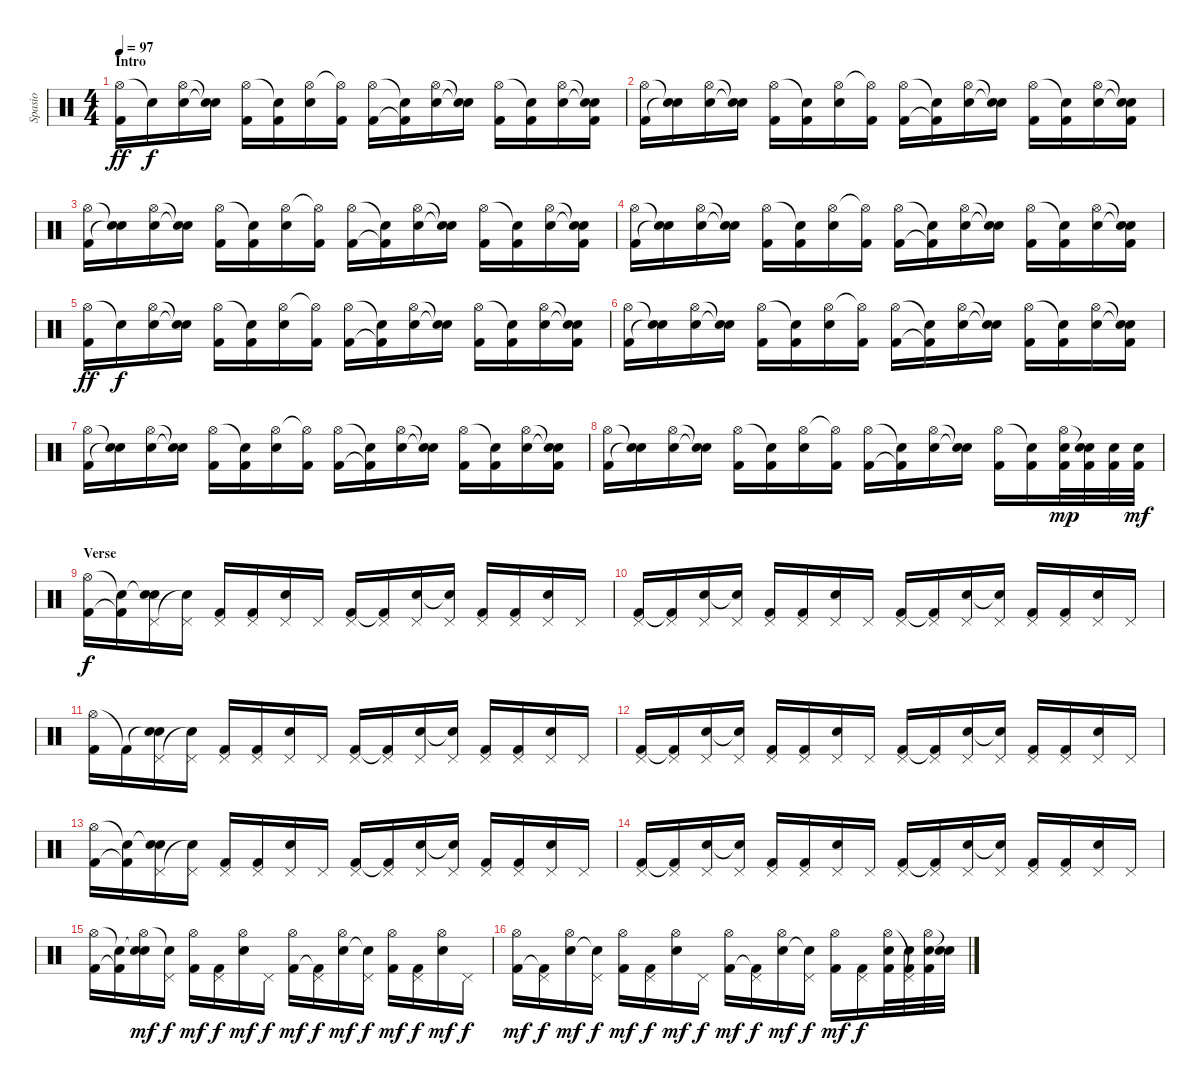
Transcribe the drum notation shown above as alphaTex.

\track ("Spasio" "Spasio") {instrument percussion}
\staff {score}
\articulation defaults
\ts (4 4)
\section ("" "Intro")
\tempo 97
\clef neutral
\ks c
("Hi-Hat (open)" "Kick (hit) 2").16{dy ff} "Snare (hit)"{t}.16{dy f} ("Hi-Hat (open)" "Electric Snare (hit)").16 ("Snare (hit)"{t} "Snare (hit)"{t}).16 ("Hi-Hat (open)" "Kick (hit) 2").16 ("Snare (hit)"{t} "Kick (hit) 2").16 ("Hi-Hat (open)" "Electric Snare (hit)").16 ("Hi-Hat (open)"{t} "Kick (hit) 2").16 ("Hi-Hat (open)" "Kick (hit) 2").16 ("Snare (hit)"{t} "Kick (hit) 2"{t}).16 ("Hi-Hat (open)" "Electric Snare (hit)").16 ("Snare (hit)"{t} "Electric Snare (hit)"{t}).16 ("Hi-Hat (open)" "Kick (hit) 2").16 ("Snare (hit)"{t} "Kick (hit) 2").16 ("Hi-Hat (open)" "Electric Snare (hit)").16 ("Snare (hit)"{t} "Snare (hit)"{t} "Kick (hit) 2").16 |
("Hi-Hat (open)" "Kick (hit) 2").16 ("Snare (hit)"{t} "Snare (hit)"{t}).16 ("Hi-Hat (open)" "Electric Snare (hit)").16 ("Snare (hit)"{t} "Snare (hit)"{t}).16 ("Hi-Hat (open)" "Kick (hit) 2").16 ("Snare (hit)"{t} "Kick (hit) 2").16 ("Hi-Hat (open)" "Electric Snare (hit)").16 ("Hi-Hat (open)"{t} "Kick (hit) 2").16 ("Hi-Hat (open)" "Kick (hit) 2").16 ("Snare (hit)"{t} "Kick (hit) 2"{t}).16 ("Hi-Hat (open)" "Electric Snare (hit)").16 ("Snare (hit)"{t} "Electric Snare (hit)"{t}).16 ("Hi-Hat (open)" "Kick (hit) 2").16 ("Snare (hit)"{t} "Kick (hit) 2").16 ("Hi-Hat (open)" "Electric Snare (hit)").16 ("Snare (hit)"{t} "Snare (hit)"{t} "Kick (hit) 2").16 |
("Hi-Hat (open)" "Kick (hit) 2").16 ("Snare (hit)"{t} "Snare (hit)"{t}).16 ("Hi-Hat (open)" "Electric Snare (hit)").16 ("Snare (hit)"{t} "Snare (hit)"{t}).16 ("Hi-Hat (open)" "Kick (hit) 2").16 ("Snare (hit)"{t} "Kick (hit) 2").16 ("Hi-Hat (open)" "Electric Snare (hit)").16 ("Hi-Hat (open)"{t} "Kick (hit) 2").16 ("Hi-Hat (open)" "Kick (hit) 2").16 ("Snare (hit)"{t} "Kick (hit) 2"{t}).16 ("Hi-Hat (open)" "Electric Snare (hit)").16 ("Snare (hit)"{t} "Electric Snare (hit)"{t}).16 ("Hi-Hat (open)" "Kick (hit) 2").16 ("Snare (hit)"{t} "Kick (hit) 2").16 ("Hi-Hat (open)" "Electric Snare (hit)").16 ("Snare (hit)"{t} "Snare (hit)"{t} "Kick (hit) 2").16 |
("Hi-Hat (open)" "Kick (hit) 2").16 ("Snare (hit)"{t} "Snare (hit)"{t}).16 ("Hi-Hat (open)" "Electric Snare (hit)").16 ("Snare (hit)"{t} "Snare (hit)"{t}).16 ("Hi-Hat (open)" "Kick (hit) 2").16 ("Snare (hit)"{t} "Kick (hit) 2").16 ("Hi-Hat (open)" "Electric Snare (hit)").16 ("Hi-Hat (open)"{t} "Kick (hit) 2").16 ("Hi-Hat (open)" "Kick (hit) 2").16 ("Snare (hit)"{t} "Kick (hit) 2"{t}).16 ("Hi-Hat (open)" "Electric Snare (hit)").16 ("Snare (hit)"{t} "Electric Snare (hit)"{t}).16 ("Hi-Hat (open)" "Kick (hit) 2").16 ("Snare (hit)"{t} "Kick (hit) 2").16 ("Hi-Hat (open)" "Electric Snare (hit)").16 ("Snare (hit)"{t} "Snare (hit)"{t} "Kick (hit) 2").16 |
("Hi-Hat (open)" "Kick (hit) 2").16{dy ff} "Snare (hit)"{t}.16{dy f} ("Hi-Hat (open)" "Electric Snare (hit)").16 ("Snare (hit)"{t} "Snare (hit)"{t}).16 ("Hi-Hat (open)" "Kick (hit) 2").16 ("Snare (hit)"{t} "Kick (hit) 2").16 ("Hi-Hat (open)" "Electric Snare (hit)").16 ("Hi-Hat (open)"{t} "Kick (hit) 2").16 ("Hi-Hat (open)" "Kick (hit) 2").16 ("Snare (hit)"{t} "Kick (hit) 2"{t}).16 ("Hi-Hat (open)" "Electric Snare (hit)").16 ("Snare (hit)"{t} "Electric Snare (hit)"{t}).16 ("Hi-Hat (open)" "Kick (hit) 2").16 ("Snare (hit)"{t} "Kick (hit) 2").16 ("Hi-Hat (open)" "Electric Snare (hit)").16 ("Snare (hit)"{t} "Snare (hit)"{t} "Kick (hit) 2").16 |
("Hi-Hat (open)" "Kick (hit) 2").16 ("Snare (hit)"{t} "Snare (hit)"{t}).16 ("Hi-Hat (open)" "Electric Snare (hit)").16 ("Snare (hit)"{t} "Snare (hit)"{t}).16 ("Hi-Hat (open)" "Kick (hit) 2").16 ("Snare (hit)"{t} "Kick (hit) 2").16 ("Hi-Hat (open)" "Electric Snare (hit)").16 ("Hi-Hat (open)"{t} "Kick (hit) 2").16 ("Hi-Hat (open)" "Kick (hit) 2").16 ("Snare (hit)"{t} "Kick (hit) 2"{t}).16 ("Hi-Hat (open)" "Electric Snare (hit)").16 ("Snare (hit)"{t} "Electric Snare (hit)"{t}).16 ("Hi-Hat (open)" "Kick (hit) 2").16 ("Snare (hit)"{t} "Kick (hit) 2").16 ("Hi-Hat (open)" "Electric Snare (hit)").16 ("Snare (hit)"{t} "Snare (hit)"{t} "Kick (hit) 2").16 |
("Hi-Hat (open)" "Kick (hit) 2").16 ("Snare (hit)"{t} "Snare (hit)"{t}).16 ("Hi-Hat (open)" "Electric Snare (hit)").16 ("Snare (hit)"{t} "Snare (hit)"{t}).16 ("Hi-Hat (open)" "Kick (hit) 2").16 ("Snare (hit)"{t} "Kick (hit) 2").16 ("Hi-Hat (open)" "Electric Snare (hit)").16 ("Hi-Hat (open)"{t} "Kick (hit) 2").16 ("Hi-Hat (open)" "Kick (hit) 2").16 ("Snare (hit)"{t} "Kick (hit) 2"{t}).16 ("Hi-Hat (open)" "Electric Snare (hit)").16 ("Snare (hit)"{t} "Electric Snare (hit)"{t}).16 ("Hi-Hat (open)" "Kick (hit) 2").16 ("Snare (hit)"{t} "Kick (hit) 2").16 ("Hi-Hat (open)" "Electric Snare (hit)").16 ("Snare (hit)"{t} "Snare (hit)"{t} "Kick (hit) 2").16 |
("Hi-Hat (open)" "Kick (hit) 2").16 ("Snare (hit)"{t} "Snare (hit)"{t}).16 ("Hi-Hat (open)" "Electric Snare (hit)").16 ("Snare (hit)"{t} "Snare (hit)"{t}).16 ("Hi-Hat (open)" "Kick (hit) 2").16 ("Snare (hit)"{t} "Kick (hit) 2").16 ("Hi-Hat (open)" "Electric Snare (hit)").16 ("Hi-Hat (open)"{t} "Kick (hit) 2").16 ("Hi-Hat (open)" "Kick (hit) 2").16 ("Snare (hit)"{t} "Kick (hit) 2"{t}).16 ("Hi-Hat (open)" "Electric Snare (hit)").16 ("Snare (hit)"{t} "Electric Snare (hit)"{t}).16 ("Hi-Hat (open)" "Kick (hit) 2").16 ("Snare (hit)"{t} "Kick (hit) 2").16 ("Hi-Hat (open)" "Electric Snare (hit)" "Kick (hit) 2").32{dy mp} ("Snare (hit)"{t} "Electric Snare (hit)" "Kick (hit) 2").32 ("Electric Snare (hit)" "Kick (hit) 2").32 ("Electric Snare (hit)" "Kick (hit) 2").32{dy mf} |
\section ("" "Verse")
("Hi-Hat (open)" "Kick (hit) 2").16{dy f} ("Snare (hit)"{t} "Kick (hit) 2"{t}).16 ("Snare (hit)"{t} "Pedal Hi-Hat (hit)" "Electric Snare (hit)").16 ("Pedal Hi-Hat (hit)" "Snare (hit)"{t}).16 ("Pedal Hi-Hat (hit)" "Kick (hit) 2").16 ("Pedal Hi-Hat (hit)" "Kick (hit) 2").16 ("Pedal Hi-Hat (hit)" "Electric Snare (hit)").16 "Pedal Hi-Hat (hit)".16 ("Pedal Hi-Hat (hit)" "Kick (hit) 2").16 ("Pedal Hi-Hat (hit)" "Kick (hit) 2"{t}).16 ("Pedal Hi-Hat (hit)" "Electric Snare (hit)").16 ("Pedal Hi-Hat (hit)" "Electric Snare (hit)"{t}).16 ("Pedal Hi-Hat (hit)" "Kick (hit) 2").16 ("Pedal Hi-Hat (hit)" "Kick (hit) 2").16 ("Pedal Hi-Hat (hit)" "Electric Snare (hit)").16 "Pedal Hi-Hat (hit)".16 |
("Pedal Hi-Hat (hit)" "Kick (hit) 2").16 ("Pedal Hi-Hat (hit)" "Kick (hit) 2"{t}).16 ("Pedal Hi-Hat (hit)" "Electric Snare (hit)").16 ("Pedal Hi-Hat (hit)" "Snare (hit)"{t}).16 ("Pedal Hi-Hat (hit)" "Kick (hit) 2").16 ("Pedal Hi-Hat (hit)" "Kick (hit) 2").16 ("Pedal Hi-Hat (hit)" "Electric Snare (hit)").16 "Pedal Hi-Hat (hit)".16 ("Pedal Hi-Hat (hit)" "Kick (hit) 2").16 ("Pedal Hi-Hat (hit)" "Kick (hit) 2"{t}).16 ("Pedal Hi-Hat (hit)" "Electric Snare (hit)").16 ("Pedal Hi-Hat (hit)" "Electric Snare (hit)"{t}).16 ("Pedal Hi-Hat (hit)" "Kick (hit) 2").16 ("Pedal Hi-Hat (hit)" "Kick (hit) 2").16 ("Pedal Hi-Hat (hit)" "Electric Snare (hit)").16 "Pedal Hi-Hat (hit)".16 |
("Hi-Hat (open)" "Kick (hit) 2").16 "Kick (hit) 2"{t}.16 ("Snare (hit)"{t} "Pedal Hi-Hat (hit)" "Electric Snare (hit)").16 ("Pedal Hi-Hat (hit)" "Snare (hit)"{t}).16 ("Pedal Hi-Hat (hit)" "Kick (hit) 2").16 ("Pedal Hi-Hat (hit)" "Kick (hit) 2").16 ("Pedal Hi-Hat (hit)" "Electric Snare (hit)").16 "Pedal Hi-Hat (hit)".16 ("Pedal Hi-Hat (hit)" "Kick (hit) 2").16 ("Pedal Hi-Hat (hit)" "Kick (hit) 2"{t}).16 ("Pedal Hi-Hat (hit)" "Electric Snare (hit)").16 ("Pedal Hi-Hat (hit)" "Electric Snare (hit)"{t}).16 ("Pedal Hi-Hat (hit)" "Kick (hit) 2").16 ("Pedal Hi-Hat (hit)" "Kick (hit) 2").16 ("Pedal Hi-Hat (hit)" "Electric Snare (hit)").16 "Pedal Hi-Hat (hit)".16 |
("Pedal Hi-Hat (hit)" "Kick (hit) 2").16 ("Pedal Hi-Hat (hit)" "Kick (hit) 2"{t}).16 ("Pedal Hi-Hat (hit)" "Electric Snare (hit)").16 ("Pedal Hi-Hat (hit)" "Snare (hit)"{t}).16 ("Pedal Hi-Hat (hit)" "Kick (hit) 2").16 ("Pedal Hi-Hat (hit)" "Kick (hit) 2").16 ("Pedal Hi-Hat (hit)" "Electric Snare (hit)").16 "Pedal Hi-Hat (hit)".16 ("Pedal Hi-Hat (hit)" "Kick (hit) 2").16 ("Pedal Hi-Hat (hit)" "Kick (hit) 2"{t}).16 ("Pedal Hi-Hat (hit)" "Electric Snare (hit)").16 ("Pedal Hi-Hat (hit)" "Electric Snare (hit)"{t}).16 ("Pedal Hi-Hat (hit)" "Kick (hit) 2").16 ("Pedal Hi-Hat (hit)" "Kick (hit) 2").16 ("Pedal Hi-Hat (hit)" "Electric Snare (hit)").16 "Pedal Hi-Hat (hit)".16 |
("Hi-Hat (open)" "Kick (hit) 2").16 ("Snare (hit)"{t} "Kick (hit) 2"{t}).16 ("Snare (hit)"{t} "Pedal Hi-Hat (hit)" "Electric Snare (hit)").16 ("Pedal Hi-Hat (hit)" "Snare (hit)"{t}).16 ("Pedal Hi-Hat (hit)" "Kick (hit) 2").16 ("Pedal Hi-Hat (hit)" "Kick (hit) 2").16 ("Pedal Hi-Hat (hit)" "Electric Snare (hit)").16 "Pedal Hi-Hat (hit)".16 ("Pedal Hi-Hat (hit)" "Kick (hit) 2").16 ("Pedal Hi-Hat (hit)" "Kick (hit) 2"{t}).16 ("Pedal Hi-Hat (hit)" "Electric Snare (hit)").16 ("Pedal Hi-Hat (hit)" "Electric Snare (hit)"{t}).16 ("Pedal Hi-Hat (hit)" "Kick (hit) 2").16 ("Pedal Hi-Hat (hit)" "Kick (hit) 2").16 ("Pedal Hi-Hat (hit)" "Electric Snare (hit)").16 "Pedal Hi-Hat (hit)".16 |
("Pedal Hi-Hat (hit)" "Kick (hit) 2").16 ("Pedal Hi-Hat (hit)" "Kick (hit) 2"{t}).16 ("Pedal Hi-Hat (hit)" "Electric Snare (hit)").16 ("Pedal Hi-Hat (hit)" "Snare (hit)"{t}).16 ("Pedal Hi-Hat (hit)" "Kick (hit) 2").16 ("Pedal Hi-Hat (hit)" "Kick (hit) 2").16 ("Pedal Hi-Hat (hit)" "Electric Snare (hit)").16 "Pedal Hi-Hat (hit)".16 ("Pedal Hi-Hat (hit)" "Kick (hit) 2").16 ("Pedal Hi-Hat (hit)" "Kick (hit) 2"{t}).16 ("Pedal Hi-Hat (hit)" "Electric Snare (hit)").16 ("Pedal Hi-Hat (hit)" "Electric Snare (hit)"{t}).16 ("Pedal Hi-Hat (hit)" "Kick (hit) 2").16 ("Pedal Hi-Hat (hit)" "Kick (hit) 2").16 ("Pedal Hi-Hat (hit)" "Electric Snare (hit)").16 "Pedal Hi-Hat (hit)".16 |
("Hi-Hat (open)" "Kick (hit) 2").16 ("Snare (hit)"{t} "Kick (hit) 2"{t}).16 ("Snare (hit)"{t} "Hi-Hat (open)" "Electric Snare (hit)").16{dy mf} ("Pedal Hi-Hat (hit)" "Snare (hit)"{t}).16{dy f} ("Hi-Hat (open)" "Kick (hit) 2").16{dy mf} ("Pedal Hi-Hat (hit)" "Kick (hit) 2").16{dy f} ("Hi-Hat (open)" "Electric Snare (hit)").16{dy mf} "Pedal Hi-Hat (hit)".16{dy f} ("Hi-Hat (open)" "Kick (hit) 2").16{dy mf} ("Pedal Hi-Hat (hit)" "Kick (hit) 2"{t}).16{dy f} ("Hi-Hat (open)" "Electric Snare (hit)").16{dy mf} ("Pedal Hi-Hat (hit)" "Electric Snare (hit)"{t}).16{dy f} ("Hi-Hat (open)" "Kick (hit) 2").16{dy mf} ("Pedal Hi-Hat (hit)" "Kick (hit) 2").16{dy f} ("Hi-Hat (open)" "Electric Snare (hit)").16{dy mf} "Pedal Hi-Hat (hit)".16{dy f} |
("Hi-Hat (open)" "Kick (hit) 2").16{dy mf} ("Pedal Hi-Hat (hit)" "Kick (hit) 2"{t}).16{dy f} ("Hi-Hat (open)" "Electric Snare (hit)").16{dy mf} ("Pedal Hi-Hat (hit)" "Snare (hit)"{t}).16{dy f} ("Hi-Hat (open)" "Kick (hit) 2").16{dy mf} ("Pedal Hi-Hat (hit)" "Kick (hit) 2").16{dy f} ("Hi-Hat (open)" "Electric Snare (hit)").16{dy mf} "Pedal Hi-Hat (hit)".16{dy f} ("Hi-Hat (open)" "Kick (hit) 2").16{dy mf} ("Pedal Hi-Hat (hit)" "Kick (hit) 2"{t}).16{dy f} ("Hi-Hat (open)" "Electric Snare (hit)").16{dy mf} ("Pedal Hi-Hat (hit)" "Electric Snare (hit)"{t}).16{dy f} ("Hi-Hat (open)" "Kick (hit) 2").16{dy mf} ("Pedal Hi-Hat (hit)" "Kick (hit) 2").16{dy f} ("Hi-Hat (open)" "Electric Snare (hit)" "Kick (hit) 2").32 ("Pedal Hi-Hat (hit)"{t} "Electric Snare (hit)" "Kick (hit) 2").32 ("Hi-Hat (open)" "Electric Snare (hit)" "Kick (hit) 2").32 ("Snare (hit)"{t} "Electric Snare (hit)").32
